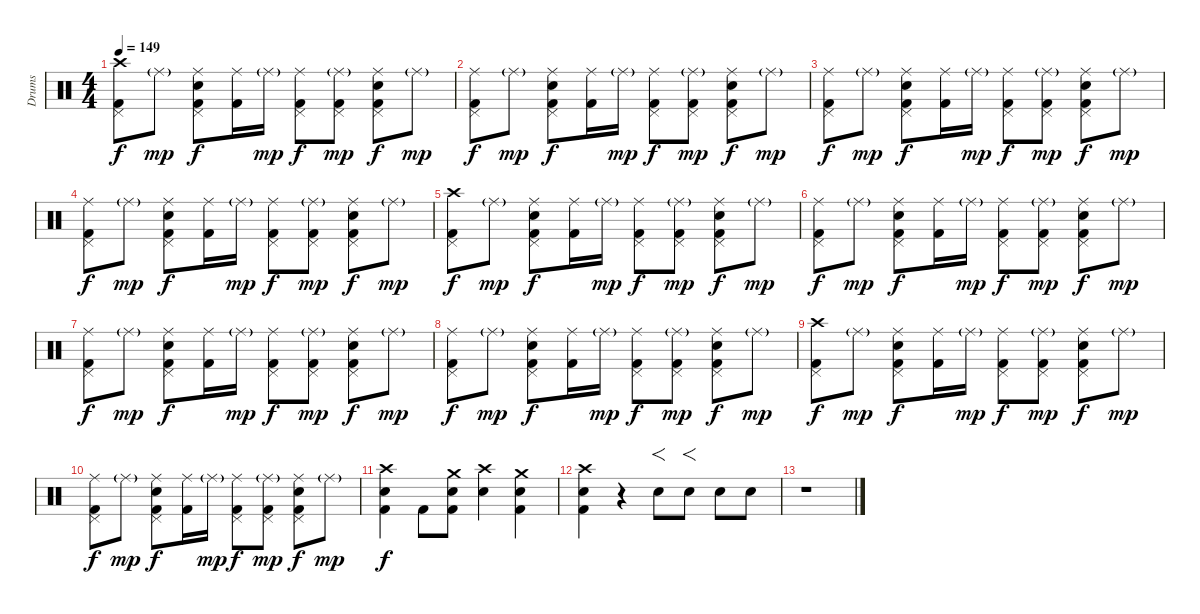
\track ("Drums" "Drums") {instrument percussion}
\staff {score}
\articulation defaults
\ts (4 4)
\tempo 149
\clef neutral
\ks c
("Crash high (hit)" "Kick (hit) 2" "Pedal Hi-Hat (hit)").8{dy f} "Ride (middle)"{g}.8{dy mp} ("Ride (middle)" "Electric Snare (hit)" "Kick (hit) 2" "Pedal Hi-Hat (hit)").8{dy f} ("Ride (middle)" "Kick (hit) 2").16 "Ride (middle)"{g}.16{dy mp} ("Ride (middle)" "Kick (hit) 2" "Pedal Hi-Hat (hit)").8{dy f} ("Ride (middle)"{g} "Kick (hit) 2" "Pedal Hi-Hat (hit)").8{dy mp} ("Ride (middle)" "Electric Snare (hit)" "Kick (hit) 2" "Pedal Hi-Hat (hit)").8{dy f} "Ride (middle)"{g}.8{dy mp} |
("Ride (middle)" "Kick (hit) 2" "Pedal Hi-Hat (hit)").8{dy f} "Ride (middle)"{g}.8{dy mp} ("Ride (middle)" "Electric Snare (hit)" "Kick (hit) 2" "Pedal Hi-Hat (hit)").8{dy f} ("Ride (middle)" "Kick (hit) 2").16 "Ride (middle)"{g}.16{dy mp} ("Ride (middle)" "Kick (hit) 2" "Pedal Hi-Hat (hit)").8{dy f} ("Ride (middle)"{g} "Kick (hit) 2" "Pedal Hi-Hat (hit)").8{dy mp} ("Ride (middle)" "Electric Snare (hit)" "Kick (hit) 2" "Pedal Hi-Hat (hit)").8{dy f} "Ride (middle)"{g}.8{dy mp} |
("Ride (middle)" "Kick (hit) 2" "Pedal Hi-Hat (hit)").8{dy f} "Ride (middle)"{g}.8{dy mp} ("Ride (middle)" "Electric Snare (hit)" "Kick (hit) 2" "Pedal Hi-Hat (hit)").8{dy f} ("Ride (middle)" "Kick (hit) 2").16 "Ride (middle)"{g}.16{dy mp} ("Ride (middle)" "Kick (hit) 2" "Pedal Hi-Hat (hit)").8{dy f} ("Ride (middle)"{g} "Kick (hit) 2" "Pedal Hi-Hat (hit)").8{dy mp} ("Ride (middle)" "Electric Snare (hit)" "Kick (hit) 2" "Pedal Hi-Hat (hit)").8{dy f} "Ride (middle)"{g}.8{dy mp} |
("Ride (middle)" "Kick (hit) 2" "Pedal Hi-Hat (hit)").8{dy f} "Ride (middle)"{g}.8{dy mp} ("Ride (middle)" "Electric Snare (hit)" "Kick (hit) 2" "Pedal Hi-Hat (hit)").8{dy f} ("Ride (middle)" "Kick (hit) 2").16 "Ride (middle)"{g}.16{dy mp} ("Ride (middle)" "Kick (hit) 2" "Pedal Hi-Hat (hit)").8{dy f} ("Ride (middle)"{g} "Kick (hit) 2" "Pedal Hi-Hat (hit)").8{dy mp} ("Ride (middle)" "Electric Snare (hit)" "Kick (hit) 2" "Pedal Hi-Hat (hit)").8{dy f} "Ride (middle)"{g}.8{dy mp} |
("Crash high (hit)" "Kick (hit) 2" "Pedal Hi-Hat (hit)").8{dy f} "Ride (middle)"{g}.8{dy mp} ("Ride (middle)" "Electric Snare (hit)" "Kick (hit) 2" "Pedal Hi-Hat (hit)").8{dy f} ("Ride (middle)" "Kick (hit) 2").16 "Ride (middle)"{g}.16{dy mp} ("Ride (middle)" "Kick (hit) 2" "Pedal Hi-Hat (hit)").8{dy f} ("Ride (middle)"{g} "Kick (hit) 2" "Pedal Hi-Hat (hit)").8{dy mp} ("Ride (middle)" "Electric Snare (hit)" "Kick (hit) 2" "Pedal Hi-Hat (hit)").8{dy f} "Ride (middle)"{g}.8{dy mp} |
("Ride (middle)" "Kick (hit) 2" "Pedal Hi-Hat (hit)").8{dy f} "Ride (middle)"{g}.8{dy mp} ("Ride (middle)" "Electric Snare (hit)" "Kick (hit) 2" "Pedal Hi-Hat (hit)").8{dy f} ("Ride (middle)" "Kick (hit) 2").16 "Ride (middle)"{g}.16{dy mp} ("Ride (middle)" "Kick (hit) 2" "Pedal Hi-Hat (hit)").8{dy f} ("Ride (middle)"{g} "Kick (hit) 2" "Pedal Hi-Hat (hit)").8{dy mp} ("Ride (middle)" "Electric Snare (hit)" "Kick (hit) 2" "Pedal Hi-Hat (hit)").8{dy f} "Ride (middle)"{g}.8{dy mp} |
("Ride (middle)" "Kick (hit) 2" "Pedal Hi-Hat (hit)").8{dy f} "Ride (middle)"{g}.8{dy mp} ("Ride (middle)" "Electric Snare (hit)" "Kick (hit) 2" "Pedal Hi-Hat (hit)").8{dy f} ("Ride (middle)" "Kick (hit) 2").16 "Ride (middle)"{g}.16{dy mp} ("Ride (middle)" "Kick (hit) 2" "Pedal Hi-Hat (hit)").8{dy f} ("Ride (middle)"{g} "Kick (hit) 2" "Pedal Hi-Hat (hit)").8{dy mp} ("Ride (middle)" "Electric Snare (hit)" "Kick (hit) 2" "Pedal Hi-Hat (hit)").8{dy f} "Ride (middle)"{g}.8{dy mp} |
("Ride (middle)" "Kick (hit) 2" "Pedal Hi-Hat (hit)").8{dy f} "Ride (middle)"{g}.8{dy mp} ("Ride (middle)" "Electric Snare (hit)" "Kick (hit) 2" "Pedal Hi-Hat (hit)").8{dy f} ("Ride (middle)" "Kick (hit) 2").16 "Ride (middle)"{g}.16{dy mp} ("Ride (middle)" "Kick (hit) 2" "Pedal Hi-Hat (hit)").8{dy f} ("Ride (middle)"{g} "Kick (hit) 2" "Pedal Hi-Hat (hit)").8{dy mp} ("Ride (middle)" "Electric Snare (hit)" "Kick (hit) 2" "Pedal Hi-Hat (hit)").8{dy f} "Ride (middle)"{g}.8{dy mp} |
("Crash high (hit)" "Kick (hit) 2" "Pedal Hi-Hat (hit)").8{dy f} "Ride (middle)"{g}.8{dy mp} ("Ride (middle)" "Electric Snare (hit)" "Kick (hit) 2" "Pedal Hi-Hat (hit)").8{dy f} ("Ride (middle)" "Kick (hit) 2").16 "Ride (middle)"{g}.16{dy mp} ("Ride (middle)" "Kick (hit) 2" "Pedal Hi-Hat (hit)").8{dy f} ("Ride (middle)"{g} "Kick (hit) 2" "Pedal Hi-Hat (hit)").8{dy mp} ("Ride (middle)" "Electric Snare (hit)" "Kick (hit) 2" "Pedal Hi-Hat (hit)").8{dy f} "Ride (middle)"{g}.8{dy mp} |
("Ride (middle)" "Kick (hit) 2" "Pedal Hi-Hat (hit)").8{dy f} "Ride (middle)"{g}.8{dy mp} ("Ride (middle)" "Electric Snare (hit)" "Kick (hit) 2" "Pedal Hi-Hat (hit)").8{dy f} ("Ride (middle)" "Kick (hit) 2").16 "Ride (middle)"{g}.16{dy mp} ("Ride (middle)" "Kick (hit) 2" "Pedal Hi-Hat (hit)").8{dy f} ("Ride (middle)"{g} "Kick (hit) 2" "Pedal Hi-Hat (hit)").8{dy mp} ("Ride (middle)" "Electric Snare (hit)" "Kick (hit) 2" "Pedal Hi-Hat (hit)").8{dy f} "Ride (middle)"{g}.8{dy mp} |
("Crash high (hit)" "Electric Snare (hit)" "Kick (hit) 2").4{dy f} "Kick (hit) 2".8 ("Crash medium (hit)" "Electric Snare (hit)" "Kick (hit) 2").8 ("Crash high (hit)" "Electric Snare (hit)").4 ("Crash medium (hit)" "Electric Snare (hit)" "Kick (hit) 2").4 |
("Crash high (hit)" "Electric Snare (hit)" "Kick (hit) 2").4 r.4 "Electric Snare (hit)".8{f} "Electric Snare (hit)".8{f} "Electric Snare (hit)".8 "Electric Snare (hit)".8 |
r.1
